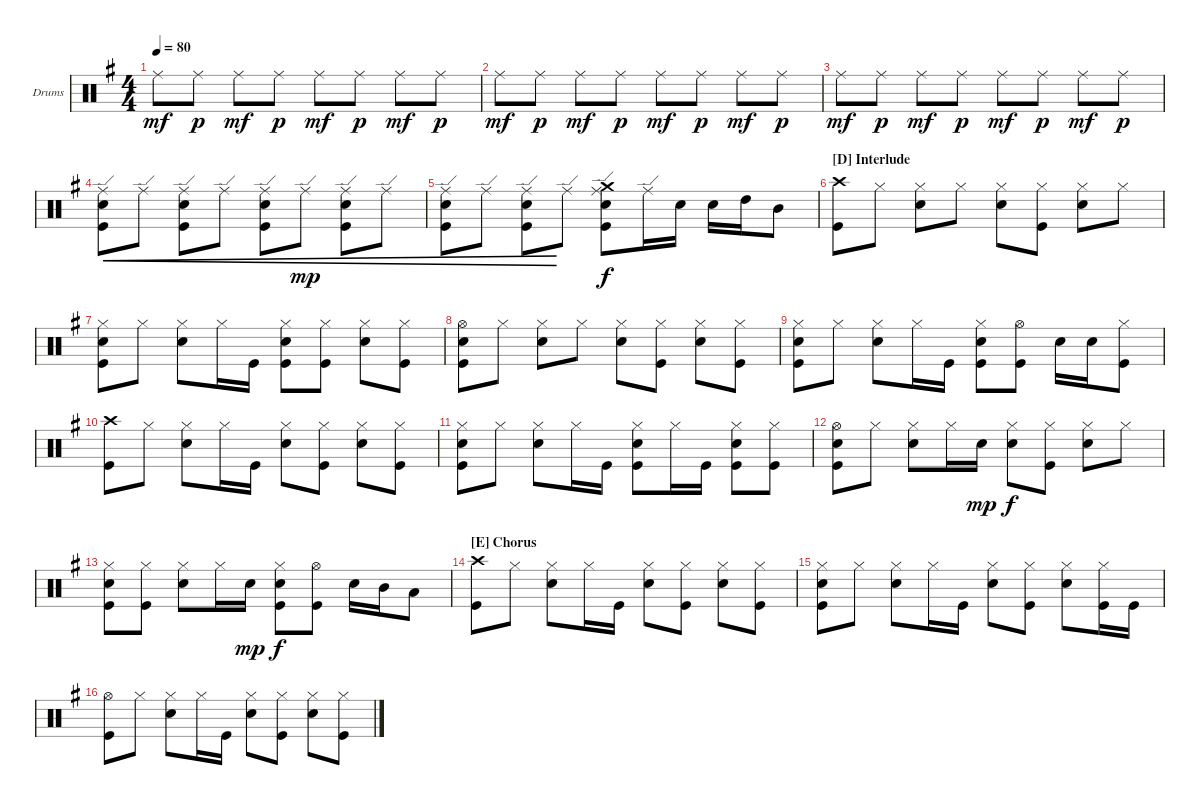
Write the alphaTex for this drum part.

\defaultSystemsLayout 4
\bracketExtendMode groupsimilarinstruments
\firstSystemTrackNameOrientation horizontal
\otherSystemsTrackNameOrientation horizontal
\chordDiagramsInScore
\track ("Dominic Boyce (Drums)" "Drums") {instrument percussion}
\staff {score}
\articulation defaults
\ts (4 4)
\tempo 80
\clef neutral
\ks g "Ride (middle)".8{dy mf} "Ride (middle)".8{dy p} "Ride (middle)".8{dy mf} "Ride (middle)".8{dy p} "Ride (middle)".8{dy mf} "Ride (middle)".8{dy p} "Ride (middle)".8{dy mf} "Ride (middle)".8{dy p}
|
"Ride (middle)".8{dy mf} "Ride (middle)".8{dy p} "Ride (middle)".8{dy mf} "Ride (middle)".8{dy p} "Ride (middle)".8{dy mf} "Ride (middle)".8{dy p} "Ride (middle)".8{dy mf} "Ride (middle)".8{dy p} |
"Ride (middle)".8{dy mf} "Ride (middle)".8{dy p} "Ride (middle)".8{dy mf} "Ride (middle)".8{dy p} "Ride (middle)".8{dy mf} "Ride (middle)".8{dy p} "Ride (middle)".8{dy mf} "Ride (middle)".8{dy p} |
("Kick (hit)" "Ride (edge)" "Snare (hit) 2").8{cre} "Ride (edge)".8{cre} ("Kick (hit)" "Ride (edge)" "Snare (hit) 2").8{cre} "Ride (edge)".8{cre} ("Kick (hit)" "Ride (edge)" "Snare (hit) 2").8{cre} "Ride (edge)".8{cre dy mp} ("Kick (hit)" "Ride (edge)" "Snare (hit) 2").8{cre} "Ride (edge)".8{cre} |
("Kick (hit)" "Ride (edge)" "Snare (hit) 2").8{cre} "Ride (edge)".8{cre} ("Kick (hit)" "Ride (edge)" "Snare (hit) 2").8{cre} "Ride (edge)".8 ("Kick (hit)" "Snare (hit) 2" "Ride (edge)" "Crash medium (hit)").8{dy f} "Ride (edge)".16 "Snare (hit) 2".16 "Snare (hit) 2".16 "High Tom (hit)".16 "Mid Tom (hit)".8 |
\section ("D" "Interlude")
("Kick (hit)" "Crash high (hit)").8 "Hi-Hat (closed)".8 ("Snare (hit) 2" "Hi-Hat (closed)").8 "Hi-Hat (closed)".8 ("Snare (hit) 2" "Hi-Hat (closed)").8 ("Hi-Hat (closed)" "Kick (hit)").8 ("Snare (hit) 2" "Hi-Hat (closed)").8 "Hi-Hat (closed)".8 |
("Snare (hit) 2" "Hi-Hat (closed)" "Kick (hit)").8 "Hi-Hat (closed)".8 ("Snare (hit) 2" "Hi-Hat (closed)").8 "Hi-Hat (closed)".16 "Kick (hit)".16 ("Kick (hit)" "Snare (hit) 2" "Hi-Hat (closed)").8 ("Hi-Hat (closed)" "Kick (hit)").8 ("Snare (hit) 2" "Hi-Hat (closed)").8 ("Hi-Hat (closed)" "Kick (hit)").8 |
("Kick (hit)" "Snare (hit) 2" "Hi-Hat (open)").8 "Hi-Hat (closed)".8 ("Snare (hit) 2" "Hi-Hat (closed)").8 "Hi-Hat (closed)".8 ("Snare (hit) 2" "Hi-Hat (closed)").8 ("Hi-Hat (closed)" "Kick (hit)").8 ("Snare (hit) 2" "Hi-Hat (closed)").8 ("Hi-Hat (closed)" "Kick (hit)").8 |
("Snare (hit) 2" "Hi-Hat (closed)" "Kick (hit)").8 "Hi-Hat (closed)".8 ("Snare (hit) 2" "Hi-Hat (closed)").8 "Hi-Hat (closed)".16 "Kick (hit)".16 ("Kick (hit)" "Snare (hit) 2" "Hi-Hat (closed)").8 ("Hi-Hat (open)" "Kick (hit)").8 "Snare (hit) 2".16 "Snare (hit) 2".16 ("Kick (hit)" "Hi-Hat (closed)").8 |
("Kick (hit)" "Crash high (hit)").8 "Hi-Hat (closed)".8 ("Snare (hit) 2" "Hi-Hat (closed)").8 "Hi-Hat (closed)".16 "Kick (hit)".16 ("Snare (hit) 2" "Hi-Hat (closed)").8 ("Hi-Hat (closed)" "Kick (hit)").8 ("Snare (hit) 2" "Hi-Hat (closed)").8 ("Hi-Hat (closed)" "Kick (hit)").8 |
("Snare (hit) 2" "Hi-Hat (closed)" "Kick (hit)").8 "Hi-Hat (closed)".8 ("Snare (hit) 2" "Hi-Hat (closed)").8 "Hi-Hat (closed)".16 "Kick (hit)".16 ("Kick (hit)" "Snare (hit) 2" "Hi-Hat (closed)").8 "Hi-Hat (closed)".16 "Kick (hit)".16 ("Snare (hit) 2" "Hi-Hat (closed)" "Kick (hit)").8 ("Hi-Hat (closed)" "Kick (hit)").8 |
("Kick (hit)" "Snare (hit) 2" "Hi-Hat (open)").8 "Hi-Hat (closed)".8 ("Snare (hit) 2" "Hi-Hat (closed)").8 "Hi-Hat (closed)".16 "Snare (hit) 2".16{dy mp} ("Snare (hit) 2" "Hi-Hat (closed)").8{dy f} ("Hi-Hat (closed)" "Kick (hit)").8 ("Snare (hit) 2" "Hi-Hat (closed)").8 "Hi-Hat (closed)".8 |
("Kick (hit)" "Snare (hit) 2" "Hi-Hat (closed)").8 ("Hi-Hat (closed)" "Kick (hit)").8 ("Snare (hit) 2" "Hi-Hat (closed)").8 "Hi-Hat (closed)".16 "Snare (hit) 2".16{dy mp} ("Snare (hit) 2" "Hi-Hat (closed)" "Kick (hit)").8{dy f} ("Hi-Hat (open)" "Kick (hit)").8 "Snare (hit) 2".16 "Mid Tom (hit)".16 "Low Tom (hit)".8 |
\section ("E" "Chorus")
("Kick (hit)" "Crash high (hit)").8 "Hi-Hat (closed)".8 ("Snare (hit) 2" "Hi-Hat (closed)").8 "Hi-Hat (closed)".16 "Kick (hit)".16 ("Snare (hit) 2" "Hi-Hat (closed)").8 ("Hi-Hat (closed)" "Kick (hit)").8 ("Snare (hit) 2" "Hi-Hat (closed)").8 ("Hi-Hat (closed)" "Kick (hit)").8 |
("Snare (hit) 2" "Hi-Hat (closed)" "Kick (hit)").8 "Hi-Hat (closed)".8 ("Snare (hit) 2" "Hi-Hat (closed)").8 "Hi-Hat (closed)".16 "Kick (hit)".16 ("Snare (hit) 2" "Hi-Hat (closed)").8 ("Hi-Hat (closed)" "Kick (hit)").8 ("Snare (hit) 2" "Hi-Hat (closed)").8 ("Kick (hit)" "Hi-Hat (closed)").16 "Kick (hit)".16 |
("Kick (hit)" "Hi-Hat (open)").8 "Hi-Hat (closed)".8 ("Snare (hit) 2" "Hi-Hat (closed)").8 "Hi-Hat (closed)".16 "Kick (hit)".16 ("Snare (hit) 2" "Hi-Hat (closed)").8 ("Hi-Hat (closed)" "Kick (hit)").8 ("Snare (hit) 2" "Hi-Hat (closed)").8 ("Hi-Hat (closed)" "Kick (hit)").8
